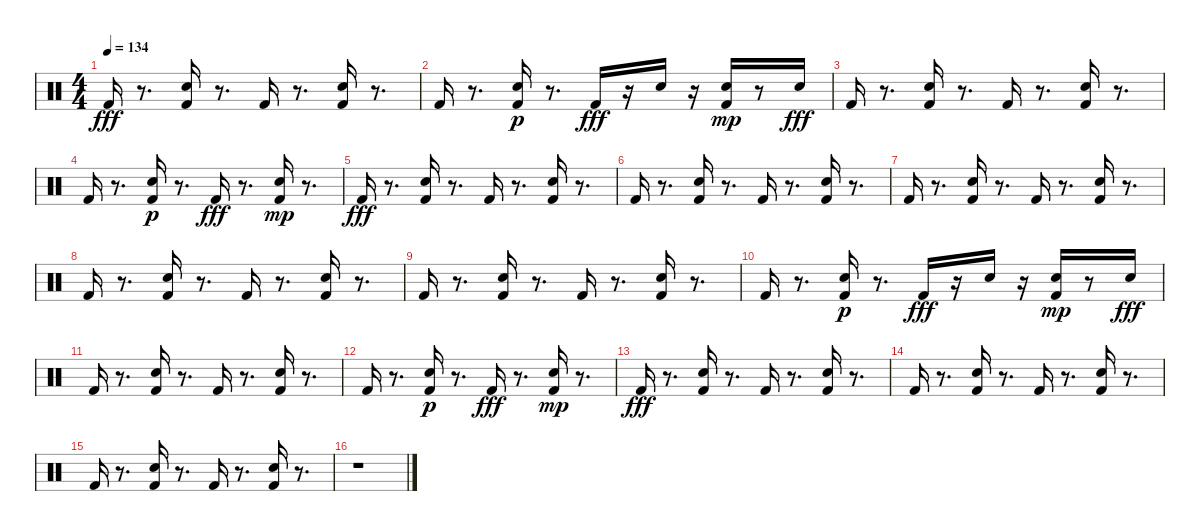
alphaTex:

\track "" {instrument percussion}
\staff {score}
\articulation defaults
\ts (4 4)
\tempo 134
\clef neutral
\ks c "Kick (hit) 2".16{dy fff}
r.8{d} ("Kick (hit) 2" "Snare (hit) 2").16 r.8{d} "Kick (hit) 2".16 r.8{d} ("Kick (hit) 2" "Snare (hit) 2").16 r.8{d} |
"Kick (hit) 2".16 r.8{d} ("Snare (hit) 2" "Kick (hit) 2").16{dy p} r.8{d} "Kick (hit) 2".16{dy fff} r.16 "Snare (hit) 2".16 r.16 ("Snare (hit) 2" "Kick (hit) 2").16{dy mp} r.8 "Snare (hit) 2".16{dy fff} |
"Kick (hit) 2".16 r.8{d} ("Kick (hit) 2" "Snare (hit) 2").16 r.8{d} "Kick (hit) 2".16 r.8{d} ("Kick (hit) 2" "Snare (hit) 2").16 r.8{d} |
"Kick (hit) 2".16 r.8{d} ("Snare (hit) 2" "Kick (hit) 2").16{dy p} r.8{d} "Kick (hit) 2".16{dy fff} r.8{d} ("Snare (hit) 2" "Kick (hit) 2").16{dy mp} r.8{d} |
"Kick (hit) 2".16{dy fff} r.8{d} ("Kick (hit) 2" "Snare (hit) 2").16 r.8{d} "Kick (hit) 2".16 r.8{d} ("Kick (hit) 2" "Snare (hit) 2").16 r.8{d} |
"Kick (hit) 2".16 r.8{d} ("Kick (hit) 2" "Snare (hit) 2").16 r.8{d} "Kick (hit) 2".16 r.8{d} ("Kick (hit) 2" "Snare (hit) 2").16 r.8{d} |
"Kick (hit) 2".16 r.8{d} ("Kick (hit) 2" "Snare (hit) 2").16 r.8{d} "Kick (hit) 2".16 r.8{d} ("Kick (hit) 2" "Snare (hit) 2").16 r.8{d} |
"Kick (hit) 2".16 r.8{d} ("Kick (hit) 2" "Snare (hit) 2").16 r.8{d} "Kick (hit) 2".16 r.8{d} ("Kick (hit) 2" "Snare (hit) 2").16 r.8{d} |
"Kick (hit) 2".16 r.8{d} ("Kick (hit) 2" "Snare (hit) 2").16 r.8{d} "Kick (hit) 2".16 r.8{d} ("Kick (hit) 2" "Snare (hit) 2").16 r.8{d} |
"Kick (hit) 2".16 r.8{d} ("Snare (hit) 2" "Kick (hit) 2").16{dy p} r.8{d} "Kick (hit) 2".16{dy fff} r.16 "Snare (hit) 2".16 r.16 ("Snare (hit) 2" "Kick (hit) 2").16{dy mp} r.8 "Snare (hit) 2".16{dy fff} |
"Kick (hit) 2".16 r.8{d} ("Kick (hit) 2" "Snare (hit) 2").16 r.8{d} "Kick (hit) 2".16 r.8{d} ("Kick (hit) 2" "Snare (hit) 2").16 r.8{d} |
"Kick (hit) 2".16 r.8{d} ("Snare (hit) 2" "Kick (hit) 2").16{dy p} r.8{d} "Kick (hit) 2".16{dy fff} r.8{d} ("Snare (hit) 2" "Kick (hit) 2").16{dy mp} r.8{d} |
"Kick (hit) 2".16{dy fff} r.8{d} ("Kick (hit) 2" "Snare (hit) 2").16 r.8{d} "Kick (hit) 2".16 r.8{d} ("Kick (hit) 2" "Snare (hit) 2").16 r.8{d} |
"Kick (hit) 2".16 r.8{d} ("Kick (hit) 2" "Snare (hit) 2").16 r.8{d} "Kick (hit) 2".16 r.8{d} ("Kick (hit) 2" "Snare (hit) 2").16 r.8{d} |
"Kick (hit) 2".16 r.8{d} ("Kick (hit) 2" "Snare (hit) 2").16 r.8{d} "Kick (hit) 2".16 r.8{d} ("Kick (hit) 2" "Snare (hit) 2").16 r.8{d} |
r.1
